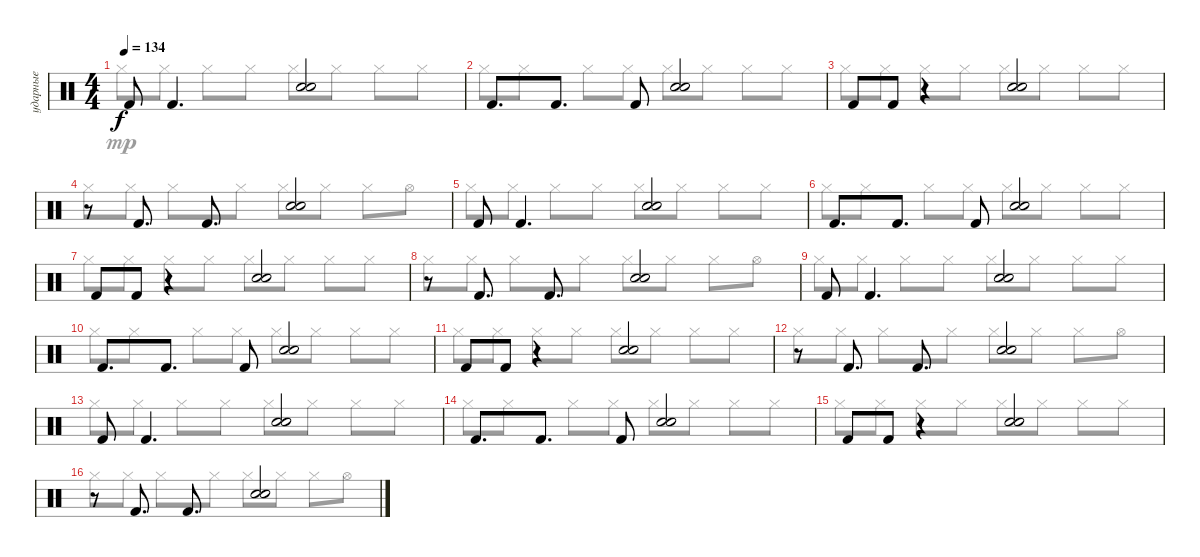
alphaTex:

\track ("ударные" "ударные") {instrument percussion}
\staff {score}
\articulation defaults
\voice
\ts (4 4)
\tempo 134
\clef neutral
\ks c "Kick (hit) 2".8{dy f} "Kick (hit) 2".4{d}
("Hand Clap (hit)" "Electric Snare (hit)").2 |
"Kick (hit) 2".8{d} "Kick (hit) 2".8{d} "Kick (hit) 2".8 ("Hand Clap (hit)" "Electric Snare (hit)").2 |
"Kick (hit) 2".8 "Kick (hit) 2".8 r.4 ("Hand Clap (hit)" "Electric Snare (hit)").2 |
r.8 "Kick (hit) 2".8{d} "Kick (hit) 2".8{d} ("Hand Clap (hit)" "Electric Snare (hit)").2 |
"Kick (hit) 2".8 "Kick (hit) 2".4{d} ("Hand Clap (hit)" "Electric Snare (hit)").2 |
"Kick (hit) 2".8{d} "Kick (hit) 2".8{d} "Kick (hit) 2".8 ("Hand Clap (hit)" "Electric Snare (hit)").2 |
"Kick (hit) 2".8 "Kick (hit) 2".8 r.4 ("Hand Clap (hit)" "Electric Snare (hit)").2 |
r.8 "Kick (hit) 2".8{d} "Kick (hit) 2".8{d} ("Hand Clap (hit)" "Electric Snare (hit)").2 |
"Kick (hit) 2".8 "Kick (hit) 2".4{d} ("Hand Clap (hit)" "Electric Snare (hit)").2 |
"Kick (hit) 2".8{d} "Kick (hit) 2".8{d} "Kick (hit) 2".8 ("Hand Clap (hit)" "Electric Snare (hit)").2 |
"Kick (hit) 2".8 "Kick (hit) 2".8 r.4 ("Hand Clap (hit)" "Electric Snare (hit)").2 |
r.8 "Kick (hit) 2".8{d} "Kick (hit) 2".8{d} ("Hand Clap (hit)" "Electric Snare (hit)").2 |
"Kick (hit) 2".8 "Kick (hit) 2".4{d} ("Hand Clap (hit)" "Electric Snare (hit)").2 |
"Kick (hit) 2".8{d} "Kick (hit) 2".8{d} "Kick (hit) 2".8 ("Hand Clap (hit)" "Electric Snare (hit)").2 |
"Kick (hit) 2".8 "Kick (hit) 2".8 r.4 ("Hand Clap (hit)" "Electric Snare (hit)").2 |
r.8 "Kick (hit) 2".8{d} "Kick (hit) 2".8{d} ("Hand Clap (hit)" "Electric Snare (hit)").2
\voice
\clef neutral
\ottava regular
\simile none
\ks c "Hi-Hat (closed)".8{dy mp} "Hi-Hat (closed)".8 "Hi-Hat (closed)".8 "Hi-Hat (closed)".8 "Hi-Hat (closed)".8 "Hi-Hat (closed)".8 "Hi-Hat (closed)".8 "Hi-Hat (closed)".8
|
"Hi-Hat (closed)".8 "Hi-Hat (closed)".8 "Hi-Hat (closed)".8 "Hi-Hat (closed)".8 "Hi-Hat (closed)".8 "Hi-Hat (closed)".8 "Hi-Hat (closed)".8 "Hi-Hat (closed)".8 |
"Hi-Hat (closed)".8 "Hi-Hat (closed)".8 "Hi-Hat (closed)".8 "Hi-Hat (closed)".8 "Hi-Hat (closed)".8 "Hi-Hat (closed)".8 "Hi-Hat (closed)".8 "Hi-Hat (closed)".8 |
"Hi-Hat (closed)".8 "Hi-Hat (closed)".8 "Hi-Hat (closed)".8 "Hi-Hat (closed)".8 "Hi-Hat (closed)".8 "Hi-Hat (closed)".8 "Hi-Hat (closed)".8 "Hi-Hat (open)".8 |
"Hi-Hat (closed)".8 "Hi-Hat (closed)".8 "Hi-Hat (closed)".8 "Hi-Hat (closed)".8 "Hi-Hat (closed)".8 "Hi-Hat (closed)".8 "Hi-Hat (closed)".8 "Hi-Hat (closed)".8 |
"Hi-Hat (closed)".8 "Hi-Hat (closed)".8 "Hi-Hat (closed)".8 "Hi-Hat (closed)".8 "Hi-Hat (closed)".8 "Hi-Hat (closed)".8 "Hi-Hat (closed)".8 "Hi-Hat (closed)".8 |
"Hi-Hat (closed)".8 "Hi-Hat (closed)".8 "Hi-Hat (closed)".8 "Hi-Hat (closed)".8 "Hi-Hat (closed)".8 "Hi-Hat (closed)".8 "Hi-Hat (closed)".8 "Hi-Hat (closed)".8 |
"Hi-Hat (closed)".8 "Hi-Hat (closed)".8 "Hi-Hat (closed)".8 "Hi-Hat (closed)".8 "Hi-Hat (closed)".8 "Hi-Hat (closed)".8 "Hi-Hat (closed)".8 "Hi-Hat (open)".8 |
"Hi-Hat (closed)".8 "Hi-Hat (closed)".8 "Hi-Hat (closed)".8 "Hi-Hat (closed)".8 "Hi-Hat (closed)".8 "Hi-Hat (closed)".8 "Hi-Hat (closed)".8 "Hi-Hat (closed)".8 |
"Hi-Hat (closed)".8 "Hi-Hat (closed)".8 "Hi-Hat (closed)".8 "Hi-Hat (closed)".8 "Hi-Hat (closed)".8 "Hi-Hat (closed)".8 "Hi-Hat (closed)".8 "Hi-Hat (closed)".8 |
"Hi-Hat (closed)".8 "Hi-Hat (closed)".8 "Hi-Hat (closed)".8 "Hi-Hat (closed)".8 "Hi-Hat (closed)".8 "Hi-Hat (closed)".8 "Hi-Hat (closed)".8 "Hi-Hat (closed)".8 |
"Hi-Hat (closed)".8 "Hi-Hat (closed)".8 "Hi-Hat (closed)".8 "Hi-Hat (closed)".8 "Hi-Hat (closed)".8 "Hi-Hat (closed)".8 "Hi-Hat (closed)".8 "Hi-Hat (open)".8 |
"Hi-Hat (closed)".8 "Hi-Hat (closed)".8 "Hi-Hat (closed)".8 "Hi-Hat (closed)".8 "Hi-Hat (closed)".8 "Hi-Hat (closed)".8 "Hi-Hat (closed)".8 "Hi-Hat (closed)".8 |
"Hi-Hat (closed)".8 "Hi-Hat (closed)".8 "Hi-Hat (closed)".8 "Hi-Hat (closed)".8 "Hi-Hat (closed)".8 "Hi-Hat (closed)".8 "Hi-Hat (closed)".8 "Hi-Hat (closed)".8 |
"Hi-Hat (closed)".8 "Hi-Hat (closed)".8 "Hi-Hat (closed)".8 "Hi-Hat (closed)".8 "Hi-Hat (closed)".8 "Hi-Hat (closed)".8 "Hi-Hat (closed)".8 "Hi-Hat (closed)".8 |
"Hi-Hat (closed)".8 "Hi-Hat (closed)".8 "Hi-Hat (closed)".8 "Hi-Hat (closed)".8 "Hi-Hat (closed)".8 "Hi-Hat (closed)".8 "Hi-Hat (closed)".8 "Hi-Hat (open)".8
